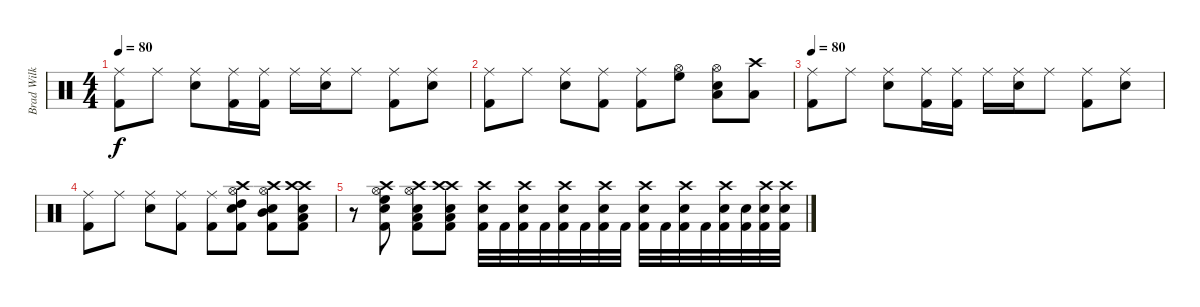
\track ("Brad Wilk" "Brad Wilk") {instrument percussion}
\staff {score}
\articulation defaults
\ts (4 4)
\tempo 80
\clef neutral
\ks c
("Ride (middle)" "Kick (hit) 2").8{dy f} "Ride (middle)".8 ("Ride (middle)" "Snare (hit) 2").8 ("Ride (middle)" "Kick (hit) 2").16 ("Ride (middle)" "Kick (hit) 2").16 "Ride (middle)".16 ("Ride (middle)" "Snare (hit) 2").16 "Ride (middle)".8 ("Ride (middle)" "Kick (hit) 2").8 ("Ride (middle)" "Snare (hit) 2").8 |
("Ride (middle)" "Kick (hit) 2").8 "Ride (middle)".8 ("Ride (middle)" "Snare (hit) 2").8 ("Ride (middle)" "Kick (hit) 2").8 ("Ride (middle)" "Kick (hit) 2").8 ("Hi-Hat (open)" "High Floor Tom (hit)").8 ("Hi-Hat (open)" "Snare (hit) 2" "Low Tom (hit)").8 ("Crash high (hit)" "Low Floor Tom (hit)").8 |
\tempo 80
("Ride (middle)" "Kick (hit) 2").8 "Ride (middle)".8 ("Ride (middle)" "Snare (hit) 2").8 ("Ride (middle)" "Kick (hit) 2").16 ("Ride (middle)" "Kick (hit) 2").16 "Ride (middle)".16 ("Ride (middle)" "Snare (hit) 2").16 "Ride (middle)".8 ("Ride (middle)" "Kick (hit) 2").8 ("Ride (middle)" "Snare (hit) 2").8 |
("Ride (middle)" "Kick (hit) 2").8 "Ride (middle)".8 ("Ride (middle)" "Snare (hit) 2").8 ("Ride (middle)" "Kick (hit) 2").8 ("Ride (middle)" "Kick (hit) 2").8 ("Hi-Hat (open)" "Crash high (hit)" "Kick (hit) 2" "Snare (hit) 2" "High Tom (hit)").8 ("Hi-Hat (open)" "Crash high (hit)" "Kick (hit) 2" "Snare (hit) 2" "Mid Tom (hit)").8 ("Crash high (hit)" "Crash high (hit)" "Kick (hit) 2" "Snare (hit) 2" "Low Tom (hit)").8 |
r.8 ("Hi-Hat (open)" "Crash high (hit)" "Kick (hit) 2" "Snare (hit) 2" "High Floor Tom (hit)").8 ("Hi-Hat (open)" "Crash high (hit)" "Kick (hit) 2" "Snare (hit) 2" "Low Tom (hit)").8 ("Crash high (hit)" "Crash high (hit)" "Kick (hit) 2" "Snare (hit) 2" "Low Floor Tom (hit)").8 ("Crash high (hit)" "Snare (hit) 2" "Kick (hit) 2").32 "Kick (hit) 2".32 ("Crash high (hit)" "Snare (hit) 2" "Kick (hit) 2").32 "Kick (hit) 2".32 ("Crash high (hit)" "Snare (hit) 2" "Kick (hit) 2").32 "Kick (hit) 2".32 ("Crash high (hit)" "Snare (hit) 2" "Kick (hit) 2").32 "Kick (hit) 2".32 ("Crash high (hit)" "Snare (hit) 2" "Kick (hit) 2").32 "Kick (hit) 2".32 ("Crash high (hit)" "Snare (hit) 2" "Kick (hit) 2").32 "Kick (hit) 2".32 ("Crash high (hit)" "Snare (hit) 2" "Kick (hit) 2").32 ("Snare (hit) 2" "Kick (hit) 2").32 ("Crash high (hit)" "Snare (hit) 2" "Kick (hit) 2").32 ("Crash high (hit)" "Snare (hit) 2" "Kick (hit) 2").32
